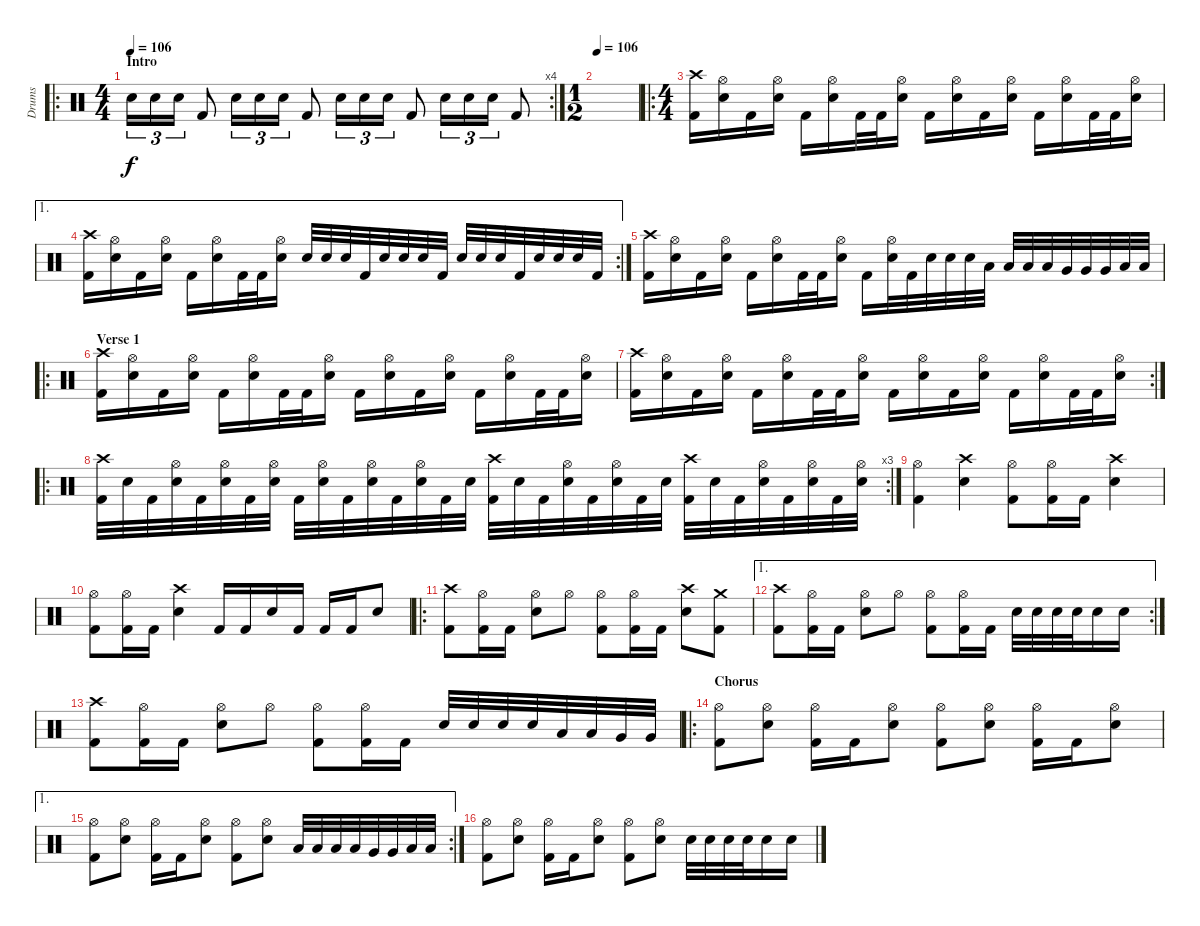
\track ("Drums" "Drums") {instrument percussion}
\staff {score}
\articulation defaults
\ro
\rc 4
\ts (4 4)
\section ("" "Intro")
\tempo 106
\tempo 130
\tempo 106
\clef neutral
\ks c "Electric Snare (hit)".16{tu (3 2) dy f} "Electric Snare (hit)".16{tu (3 2)} "Electric Snare (hit)".16{tu (3 2)} "Kick (hit) 2".8 "Electric Snare (hit)".16{tu (3 2)} "Electric Snare (hit)".16{tu (3 2)} "Electric Snare (hit)".16{tu (3 2)} "Kick (hit) 2".8 "Electric Snare (hit)".16{tu (3 2)} "Electric Snare (hit)".16{tu (3 2)} "Electric Snare (hit)".16{tu (3 2)} "Kick (hit) 2".8 "Electric Snare (hit)".16{tu (3 2)} "Electric Snare (hit)".16{tu (3 2)} "Electric Snare (hit)".16{tu (3 2)} "Kick (hit) 2".8
|
\ts (1 2)
\tempo 106
|
\ro
\ts (4 4)
("Crash high (hit)" "Kick (hit) 2").16 ("Electric Snare (hit)" "Hi-Hat (open)").16 "Kick (hit) 2".16 ("Electric Snare (hit)" "Hi-Hat (open)").16 "Kick (hit) 2".16 ("Electric Snare (hit)" "Hi-Hat (open)").16 "Kick (hit) 2".32 "Kick (hit) 2".32 ("Electric Snare (hit)" "Hi-Hat (open)").16 "Kick (hit) 2".16 ("Electric Snare (hit)" "Hi-Hat (open)").16 "Kick (hit) 2".16 ("Electric Snare (hit)" "Hi-Hat (open)").16 "Kick (hit) 2".16 ("Electric Snare (hit)" "Hi-Hat (open)").16 "Kick (hit) 2".32 "Kick (hit) 2".32 ("Electric Snare (hit)" "Hi-Hat (open)").16 |
\ae 1
\rc 2
("Crash high (hit)" "Kick (hit) 2").16 ("Electric Snare (hit)" "Hi-Hat (open)").16 "Kick (hit) 2".16 ("Electric Snare (hit)" "Hi-Hat (open)").16 "Kick (hit) 2".16 ("Electric Snare (hit)" "Hi-Hat (open)").16 "Kick (hit) 2".32 "Kick (hit) 2".32 ("Electric Snare (hit)" "Hi-Hat (open)").16 "Electric Snare (hit)".32 "Electric Snare (hit)".32 "Electric Snare (hit)".32 "Kick (hit) 2".32 "Electric Snare (hit)".32 "Electric Snare (hit)".32 "Electric Snare (hit)".32 "Kick (hit) 2".32 "Electric Snare (hit)".32 "Electric Snare (hit)".32 "Electric Snare (hit)".32 "Kick (hit) 2".32 "Electric Snare (hit)".32 "Electric Snare (hit)".32 "Electric Snare (hit)".32 "Kick (hit) 2".32 |
("Crash high (hit)" "Kick (hit) 2").16 ("Electric Snare (hit)" "Hi-Hat (open)").16 "Kick (hit) 2".16 ("Electric Snare (hit)" "Hi-Hat (open)").16 "Kick (hit) 2".16 ("Electric Snare (hit)" "Hi-Hat (open)").16 "Kick (hit) 2".32 "Kick (hit) 2".32 ("Electric Snare (hit)" "Hi-Hat (open)").16 "Kick (hit) 2".16 ("Electric Snare (hit)" "Hi-Hat (open)").32 "Kick (hit) 2".32 "Electric Snare (hit)".32 "Electric Snare (hit)".32 "Electric Snare (hit)".32 "Low Tom (hit)".32 "Low Tom (hit)".32 "Low Tom (hit)".32 "Low Tom (hit)".32 "Very Low Tom (hit)".32 "Very Low Tom (hit)".32 "Very Low Tom (hit)".32 "Low Floor Tom (hit)".32 "Low Floor Tom (hit)".32 |
\ro
\section ("" "Verse 1")
("Crash high (hit)" "Kick (hit) 2").16 ("Electric Snare (hit)" "Hi-Hat (open)").16 "Kick (hit) 2".16 ("Electric Snare (hit)" "Hi-Hat (open)").16 "Kick (hit) 2".16 ("Electric Snare (hit)" "Hi-Hat (open)").16 "Kick (hit) 2".32 "Kick (hit) 2".32 ("Electric Snare (hit)" "Hi-Hat (open)").16 "Kick (hit) 2".16 ("Electric Snare (hit)" "Hi-Hat (open)").16 "Kick (hit) 2".16 ("Electric Snare (hit)" "Hi-Hat (open)").16 "Kick (hit) 2".16 ("Electric Snare (hit)" "Hi-Hat (open)").16 "Kick (hit) 2".32 "Kick (hit) 2".32 ("Electric Snare (hit)" "Hi-Hat (open)").16 |
\rc 2
("Crash high (hit)" "Kick (hit) 2").16 ("Electric Snare (hit)" "Hi-Hat (open)").16 "Kick (hit) 2".16 ("Electric Snare (hit)" "Hi-Hat (open)").16 "Kick (hit) 2".16 ("Electric Snare (hit)" "Hi-Hat (open)").16 "Kick (hit) 2".32 "Kick (hit) 2".32 ("Electric Snare (hit)" "Hi-Hat (open)").16 "Kick (hit) 2".16 ("Electric Snare (hit)" "Hi-Hat (open)").16 "Kick (hit) 2".16 ("Electric Snare (hit)" "Hi-Hat (open)").16 "Kick (hit) 2".16 ("Electric Snare (hit)" "Hi-Hat (open)").16 "Kick (hit) 2".32 "Kick (hit) 2".32 ("Electric Snare (hit)" "Hi-Hat (open)").16 |
\ro
\rc 3
("Crash high (hit)" "Kick (hit) 2").32 "Electric Snare (hit)".32 "Kick (hit) 2".32 ("Electric Snare (hit)" "Hi-Hat (open)").32 "Kick (hit) 2".32 ("Electric Snare (hit)" "Hi-Hat (open)").32 "Kick (hit) 2".32 ("Electric Snare (hit)" "Hi-Hat (open)").32 "Kick (hit) 2".32 ("Electric Snare (hit)" "Hi-Hat (open)").32 "Kick (hit) 2".32 ("Electric Snare (hit)" "Hi-Hat (open)").32 "Kick (hit) 2".32 ("Electric Snare (hit)" "Hi-Hat (open)").32 "Kick (hit) 2".32 "Electric Snare (hit)".32 ("Crash high (hit)" "Kick (hit) 2").32 "Electric Snare (hit)".32 "Kick (hit) 2".32 ("Electric Snare (hit)" "Hi-Hat (open)").32 "Kick (hit) 2".32 ("Electric Snare (hit)" "Hi-Hat (open)").32 "Kick (hit) 2".32 "Electric Snare (hit)".32 ("Crash high (hit)" "Kick (hit) 2").32 "Electric Snare (hit)".32 "Kick (hit) 2".32 ("Electric Snare (hit)" "Hi-Hat (open)").32 "Kick (hit) 2".32 ("Electric Snare (hit)" "Hi-Hat (open)").32 "Kick (hit) 2".32 ("Electric Snare (hit)" "Hi-Hat (open)").32 |
("Hi-Hat (open)" "Kick (hit) 2").4 ("Crash high (hit)" "Electric Snare (hit)").4 ("Hi-Hat (open)" "Kick (hit) 2").8 ("Hi-Hat (open)" "Kick (hit) 2").16 "Kick (hit) 2".16 ("Crash high (hit)" "Electric Snare (hit)").4 |
("Hi-Hat (open)" "Kick (hit) 2").8 ("Hi-Hat (open)" "Kick (hit) 2").16 "Kick (hit) 2".16 ("Crash high (hit)" "Electric Snare (hit)").4 "Kick (hit) 2".16 "Kick (hit) 2".16 "Electric Snare (hit)".16 "Kick (hit) 2".16 "Kick (hit) 2".16 "Kick (hit) 2".16 "Electric Snare (hit)".8 |
\ro
("Crash high (hit)" "Kick (hit) 2").8 ("Hi-Hat (open)" "Kick (hit) 2").16 "Kick (hit) 2".16 ("Hi-Hat (open)" "Electric Snare (hit)").8 "Hi-Hat (open)".8 ("Hi-Hat (open)" "Kick (hit) 2").8 ("Hi-Hat (open)" "Kick (hit) 2").16 "Kick (hit) 2".16 ("Crash high (hit)" "Electric Snare (hit)").8 ("Crash medium (hit)" "Kick (hit) 2").8 |
\ae 1
\rc 2
("Crash high (hit)" "Kick (hit) 2").8 ("Hi-Hat (open)" "Kick (hit) 2").16 "Kick (hit) 2".16 ("Hi-Hat (open)" "Electric Snare (hit)").8 "Hi-Hat (open)".8 ("Hi-Hat (open)" "Kick (hit) 2").8 ("Hi-Hat (open)" "Kick (hit) 2").16 "Kick (hit) 2".16 "Electric Snare (hit)".32 "Electric Snare (hit)".32 "Electric Snare (hit)".32 "Electric Snare (hit)".32 "Electric Snare (hit)".16 "Electric Snare (hit)".16 |
("Crash high (hit)" "Kick (hit) 2").8 ("Hi-Hat (open)" "Kick (hit) 2").16 "Kick (hit) 2".16 ("Hi-Hat (open)" "Electric Snare (hit)").8 "Hi-Hat (open)".8 ("Hi-Hat (open)" "Kick (hit) 2").8 ("Hi-Hat (open)" "Kick (hit) 2").16 "Kick (hit) 2".16 "Electric Snare (hit)".32 "Electric Snare (hit)".32 "Electric Snare (hit)".32 "Electric Snare (hit)".32 "Low Tom (hit)".32 "Low Tom (hit)".32 "Very Low Tom (hit)".32 "Very Low Tom (hit)".32 |
\ro
\section ("" "Chorus")
("Hi-Hat (open)" "Kick (hit) 2").8 ("Hi-Hat (open)" "Electric Snare (hit)").8 ("Hi-Hat (open)" "Kick (hit) 2").16 "Kick (hit) 2".16 ("Hi-Hat (open)" "Electric Snare (hit)").8 ("Hi-Hat (open)" "Kick (hit) 2").8 ("Hi-Hat (open)" "Electric Snare (hit)").8 ("Hi-Hat (open)" "Kick (hit) 2").16 "Kick (hit) 2".16 ("Hi-Hat (open)" "Electric Snare (hit)").8 |
\ae 1
\rc 2
("Hi-Hat (open)" "Kick (hit) 2").8 ("Hi-Hat (open)" "Electric Snare (hit)").8 ("Hi-Hat (open)" "Kick (hit) 2").16 "Kick (hit) 2".16 ("Hi-Hat (open)" "Electric Snare (hit)").8 ("Hi-Hat (open)" "Kick (hit) 2").8 ("Hi-Hat (open)" "Electric Snare (hit)").8 "Low Tom (hit)".32 "Low Tom (hit)".32 "Low Tom (hit)".32 "Low Tom (hit)".32 "Very Low Tom (hit)".32 "Very Low Tom (hit)".32 "Low Floor Tom (hit)".32 "Low Floor Tom (hit)".32 |
("Hi-Hat (open)" "Kick (hit) 2").8 ("Hi-Hat (open)" "Electric Snare (hit)").8 ("Hi-Hat (open)" "Kick (hit) 2").16 "Kick (hit) 2".16 ("Hi-Hat (open)" "Electric Snare (hit)").8 ("Hi-Hat (open)" "Kick (hit) 2").8 ("Hi-Hat (open)" "Electric Snare (hit)").8 "Electric Snare (hit)".32 "Electric Snare (hit)".32 "Electric Snare (hit)".32 "Electric Snare (hit)".32 "Electric Snare (hit)".16 "Electric Snare (hit)".16
